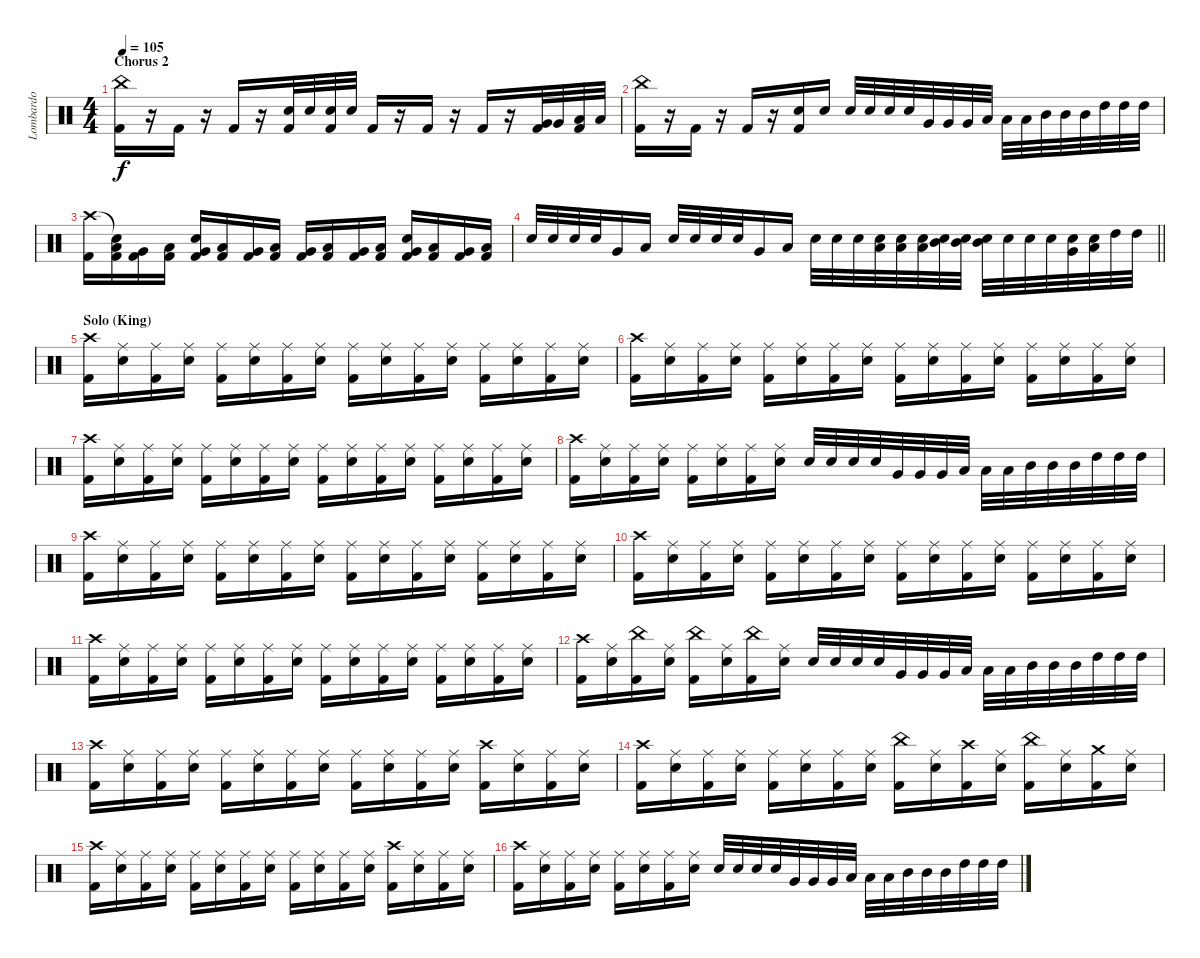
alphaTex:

\track ("Lombardo" "Lombardo") {instrument percussion}
\staff {score}
\articulation defaults
\ts (4 4)
\section ("" "Chorus 2")
\tempo 105
\clef neutral
\ks c
("China (hit)" "Kick (hit) 2").16{dy f} r.16 "Kick (hit) 2".16 r.16 "Kick (hit) 2".16 r.16 ("Kick (hit) 2" "Snare (hit) 2").32 "Snare (hit) 2".32 ("Kick (hit) 2" "Snare (hit) 2").32 "Snare (hit) 2".32 "Kick (hit) 2".16 r.16 "Kick (hit) 2".16 r.16 "Kick (hit) 2".16 r.16 ("Kick (hit) 2" "Very Low Tom (hit)").32 "Very Low Tom (hit)".32 ("Kick (hit) 2" "Low Tom (hit)").32 "Low Tom (hit)".32 |
("China (hit)" "Kick (hit) 2").16 r.16 "Kick (hit) 2".16 r.16 "Kick (hit) 2".16 r.16 ("Kick (hit) 2" "Snare (hit) 2").16 "Snare (hit) 2".16 "Snare (hit) 2".32 "Snare (hit) 2".32 "Snare (hit) 2".32 "Snare (hit) 2".32 "Very Low Tom (hit)".32 "Very Low Tom (hit)".32 "Very Low Tom (hit)".32 "Low Tom (hit)".32 "Low Tom (hit)".32 "Low Tom (hit)".32 "Mid Tom (hit)".32 "Mid Tom (hit)".32 "Mid Tom (hit)".32 "High Tom (hit)".32 "High Tom (hit)".32 "High Tom (hit)".32 |
("Crash high (hit)" "Kick (hit) 2").16 ("Snare (hit)"{t} "Kick (hit) 2" "Low Tom (hit)").16 ("Kick (hit) 2" "Very Low Tom (hit)").16 ("Kick (hit) 2" "Low Tom (hit)").16 ("Kick (hit) 2" "Very Low Tom (hit)" "Snare (hit) 2").16 ("Kick (hit) 2" "Low Tom (hit)").16 ("Kick (hit) 2" "Very Low Tom (hit)").16 ("Kick (hit) 2" "Low Tom (hit)").16 ("Kick (hit) 2" "Very Low Tom (hit)").16 ("Kick (hit) 2" "Low Tom (hit)").16 ("Kick (hit) 2" "Very Low Tom (hit)").16 ("Kick (hit) 2" "Low Tom (hit)").16 ("Kick (hit) 2" "Very Low Tom (hit)" "Snare (hit) 2").16 ("Kick (hit) 2" "Low Tom (hit)").16 ("Kick (hit) 2" "Very Low Tom (hit)").16 ("Kick (hit) 2" "Low Tom (hit)").16 |
\barLineRight lightlight "Snare (hit) 2".32 "Snare (hit) 2".32 "Snare (hit) 2".32 "Snare (hit) 2".32 "Very Low Tom (hit)".16 "Low Tom (hit)".16 "Snare (hit) 2".32 "Snare (hit) 2".32 "Snare (hit) 2".32 "Snare (hit) 2".32 "Very Low Tom (hit)".16 "Low Tom (hit)".16 "Snare (hit) 2".32 "Snare (hit) 2".32 "Snare (hit) 2".32
("Low Tom (hit)" "Snare (hit) 2").32 ("Low Tom (hit)" "Snare (hit) 2").32 ("Low Tom (hit)" "Snare (hit) 2").32 ("Mid Tom (hit)" "Snare (hit) 2").32 ("Mid Tom (hit)" "Snare (hit) 2").32 ("Mid Tom (hit)" "Snare (hit) 2").32 "Snare (hit) 2".32 "Snare (hit) 2".32 "Snare (hit) 2".32 ("Very Low Tom (hit)" "Snare (hit) 2").32 ("Low Tom (hit)" "Snare (hit) 2").32 "High Tom (hit)".32 "High Tom (hit)".32 |
\section ("" "Solo (King)")
("Crash high (hit)" "Kick (hit) 2").16 ("Ride (middle)" "Snare (hit) 2").16 ("Ride (middle)" "Kick (hit) 2").16 ("Ride (middle)" "Snare (hit) 2").16 ("Ride (middle)" "Kick (hit) 2").16 ("Ride (middle)" "Snare (hit) 2").16 ("Ride (middle)" "Kick (hit) 2").16 ("Ride (middle)" "Snare (hit) 2").16 ("Ride (middle)" "Kick (hit) 2").16 ("Ride (middle)" "Snare (hit) 2").16 ("Ride (middle)" "Kick (hit) 2").16 ("Ride (middle)" "Snare (hit) 2").16 ("Ride (middle)" "Kick (hit) 2").16 ("Ride (middle)" "Snare (hit) 2").16 ("Ride (middle)" "Kick (hit) 2").16 ("Ride (middle)" "Snare (hit) 2").16 |
("Crash high (hit)" "Kick (hit) 2").16 ("Ride (middle)" "Snare (hit) 2").16 ("Ride (middle)" "Kick (hit) 2").16 ("Ride (middle)" "Snare (hit) 2").16 ("Ride (middle)" "Kick (hit) 2").16 ("Ride (middle)" "Snare (hit) 2").16 ("Ride (middle)" "Kick (hit) 2").16 ("Ride (middle)" "Snare (hit) 2").16 ("Ride (middle)" "Kick (hit) 2").16 ("Ride (middle)" "Snare (hit) 2").16 ("Ride (middle)" "Kick (hit) 2").16 ("Ride (middle)" "Snare (hit) 2").16 ("Ride (middle)" "Kick (hit) 2").16 ("Ride (middle)" "Snare (hit) 2").16 ("Ride (middle)" "Kick (hit) 2").16 ("Ride (middle)" "Snare (hit) 2").16 |
("Crash high (hit)" "Kick (hit) 2").16 ("Ride (middle)" "Snare (hit) 2").16 ("Ride (middle)" "Kick (hit) 2").16 ("Ride (middle)" "Snare (hit) 2").16 ("Ride (middle)" "Kick (hit) 2").16 ("Ride (middle)" "Snare (hit) 2").16 ("Ride (middle)" "Kick (hit) 2").16 ("Ride (middle)" "Snare (hit) 2").16 ("Ride (middle)" "Kick (hit) 2").16 ("Ride (middle)" "Snare (hit) 2").16 ("Ride (middle)" "Kick (hit) 2").16 ("Ride (middle)" "Snare (hit) 2").16 ("Ride (middle)" "Kick (hit) 2").16 ("Ride (middle)" "Snare (hit) 2").16 ("Ride (middle)" "Kick (hit) 2").16 ("Ride (middle)" "Snare (hit) 2").16 |
("Crash high (hit)" "Kick (hit) 2").16 ("Ride (middle)" "Snare (hit) 2").16 ("Ride (middle)" "Kick (hit) 2").16 ("Ride (middle)" "Snare (hit) 2").16 ("Ride (middle)" "Kick (hit) 2").16 ("Ride (middle)" "Snare (hit) 2").16 ("Ride (middle)" "Kick (hit) 2").16 ("Ride (middle)" "Snare (hit) 2").16 "Snare (hit) 2".32 "Snare (hit) 2".32 "Snare (hit) 2".32 "Snare (hit) 2".32 "Very Low Tom (hit)".32 "Very Low Tom (hit)".32 "Very Low Tom (hit)".32 "Low Tom (hit)".32 "Low Tom (hit)".32 "Low Tom (hit)".32 "Mid Tom (hit)".32 "Mid Tom (hit)".32 "Mid Tom (hit)".32 "High Tom (hit)".32 "High Tom (hit)".32 "High Tom (hit)".32 |
("Crash high (hit)" "Kick (hit) 2").16 ("Ride (middle)" "Snare (hit) 2").16 ("Ride (middle)" "Kick (hit) 2").16 ("Ride (middle)" "Snare (hit) 2").16 ("Ride (middle)" "Kick (hit) 2").16 ("Ride (middle)" "Snare (hit) 2").16 ("Ride (middle)" "Kick (hit) 2").16 ("Ride (middle)" "Snare (hit) 2").16 ("Ride (middle)" "Kick (hit) 2").16 ("Ride (middle)" "Snare (hit) 2").16 ("Ride (middle)" "Kick (hit) 2").16 ("Ride (middle)" "Snare (hit) 2").16 ("Ride (middle)" "Kick (hit) 2").16 ("Ride (middle)" "Snare (hit) 2").16 ("Ride (middle)" "Kick (hit) 2").16 ("Ride (middle)" "Snare (hit) 2").16 |
("Crash high (hit)" "Kick (hit) 2").16 ("Ride (middle)" "Snare (hit) 2").16 ("Ride (middle)" "Kick (hit) 2").16 ("Ride (middle)" "Snare (hit) 2").16 ("Ride (middle)" "Kick (hit) 2").16 ("Ride (middle)" "Snare (hit) 2").16 ("Ride (middle)" "Kick (hit) 2").16 ("Ride (middle)" "Snare (hit) 2").16 ("Ride (middle)" "Kick (hit) 2").16 ("Ride (middle)" "Snare (hit) 2").16 ("Ride (middle)" "Kick (hit) 2").16 ("Ride (middle)" "Snare (hit) 2").16 ("Ride (middle)" "Kick (hit) 2").16 ("Ride (middle)" "Snare (hit) 2").16 ("Ride (middle)" "Kick (hit) 2").16 ("Ride (middle)" "Snare (hit) 2").16 |
("Crash high (hit)" "Kick (hit) 2").16 ("Ride (middle)" "Snare (hit) 2").16 ("Ride (middle)" "Kick (hit) 2").16 ("Ride (middle)" "Snare (hit) 2").16 ("Ride (middle)" "Kick (hit) 2").16 ("Ride (middle)" "Snare (hit) 2").16 ("Ride (middle)" "Kick (hit) 2").16 ("Ride (middle)" "Snare (hit) 2").16 ("Ride (middle)" "Kick (hit) 2").16 ("Ride (middle)" "Snare (hit) 2").16 ("Ride (middle)" "Kick (hit) 2").16 ("Ride (middle)" "Snare (hit) 2").16 ("Ride (middle)" "Kick (hit) 2").16 ("Ride (middle)" "Snare (hit) 2").16 ("Ride (middle)" "Kick (hit) 2").16 ("Ride (middle)" "Snare (hit) 2").16 |
("Crash high (hit)" "Kick (hit) 2").16 ("Ride (middle)" "Snare (hit) 2").16 ("China (hit)" "Kick (hit) 2").16 ("Ride (middle)" "Snare (hit) 2").16 ("China (hit)" "Kick (hit) 2").16 ("Ride (middle)" "Snare (hit) 2").16 ("China (hit)" "Kick (hit) 2").16 ("Ride (middle)" "Snare (hit) 2").16 "Snare (hit) 2".32 "Snare (hit) 2".32 "Snare (hit) 2".32 "Snare (hit) 2".32 "Very Low Tom (hit)".32 "Very Low Tom (hit)".32 "Very Low Tom (hit)".32 "Low Tom (hit)".32 "Low Tom (hit)".32 "Low Tom (hit)".32 "Mid Tom (hit)".32 "Mid Tom (hit)".32 "Mid Tom (hit)".32 "High Tom (hit)".32 "High Tom (hit)".32 "High Tom (hit)".32 |
("Crash high (hit)" "Kick (hit) 2").16 ("Ride (middle)" "Snare (hit) 2").16 ("Ride (middle)" "Kick (hit) 2").16 ("Ride (middle)" "Snare (hit) 2").16 ("Ride (middle)" "Kick (hit) 2").16 ("Ride (middle)" "Snare (hit) 2").16 ("Ride (middle)" "Kick (hit) 2").16 ("Ride (middle)" "Snare (hit) 2").16 ("Ride (middle)" "Kick (hit) 2").16 ("Ride (middle)" "Snare (hit) 2").16 ("Ride (middle)" "Kick (hit) 2").16 ("Ride (middle)" "Snare (hit) 2").16 ("Crash high (hit)" "Kick (hit) 2").16 ("Ride (middle)" "Snare (hit) 2").16 ("Ride (middle)" "Kick (hit) 2").16 ("Ride (middle)" "Snare (hit) 2").16 |
("Crash high (hit)" "Kick (hit) 2").16 ("Ride (middle)" "Snare (hit) 2").16 ("Ride (middle)" "Kick (hit) 2").16 ("Ride (middle)" "Snare (hit) 2").16 ("Ride (middle)" "Kick (hit) 2").16 ("Ride (middle)" "Snare (hit) 2").16 ("Ride (middle)" "Kick (hit) 2").16 ("Ride (middle)" "Snare (hit) 2").16 ("China (hit)" "Kick (hit) 2").16 ("Ride (middle)" "Snare (hit) 2").16 ("Crash high (hit)" "Kick (hit) 2").16 ("Ride (middle)" "Snare (hit) 2").16 ("China (hit)" "Kick (hit) 2").16 ("Ride (middle)" "Snare (hit) 2").16 ("Crash medium (hit)" "Kick (hit) 2").16 ("Ride (middle)" "Snare (hit) 2").16 |
("Crash high (hit)" "Kick (hit) 2").16 ("Ride (middle)" "Snare (hit) 2").16 ("Ride (middle)" "Kick (hit) 2").16 ("Ride (middle)" "Snare (hit) 2").16 ("Ride (middle)" "Kick (hit) 2").16 ("Ride (middle)" "Snare (hit) 2").16 ("Ride (middle)" "Kick (hit) 2").16 ("Ride (middle)" "Snare (hit) 2").16 ("Ride (middle)" "Kick (hit) 2").16 ("Ride (middle)" "Snare (hit) 2").16 ("Ride (middle)" "Kick (hit) 2").16 ("Ride (middle)" "Snare (hit) 2").16 ("Crash high (hit)" "Kick (hit) 2").16 ("Ride (middle)" "Snare (hit) 2").16 ("Ride (middle)" "Kick (hit) 2").16 ("Ride (middle)" "Snare (hit) 2").16 |
("Crash high (hit)" "Kick (hit) 2").16 ("Ride (middle)" "Snare (hit) 2").16 ("Ride (middle)" "Kick (hit) 2").16 ("Ride (middle)" "Snare (hit) 2").16 ("Ride (middle)" "Kick (hit) 2").16 ("Ride (middle)" "Snare (hit) 2").16 ("Ride (middle)" "Kick (hit) 2").16 ("Ride (middle)" "Snare (hit) 2").16 "Snare (hit) 2".32 "Snare (hit) 2".32 "Snare (hit) 2".32 "Snare (hit) 2".32 "Very Low Tom (hit)".32 "Very Low Tom (hit)".32 "Very Low Tom (hit)".32 "Low Tom (hit)".32 "Low Tom (hit)".32 "Low Tom (hit)".32 "Mid Tom (hit)".32 "Mid Tom (hit)".32 "Mid Tom (hit)".32 "High Tom (hit)".32 "High Tom (hit)".32 "High Tom (hit)".32
